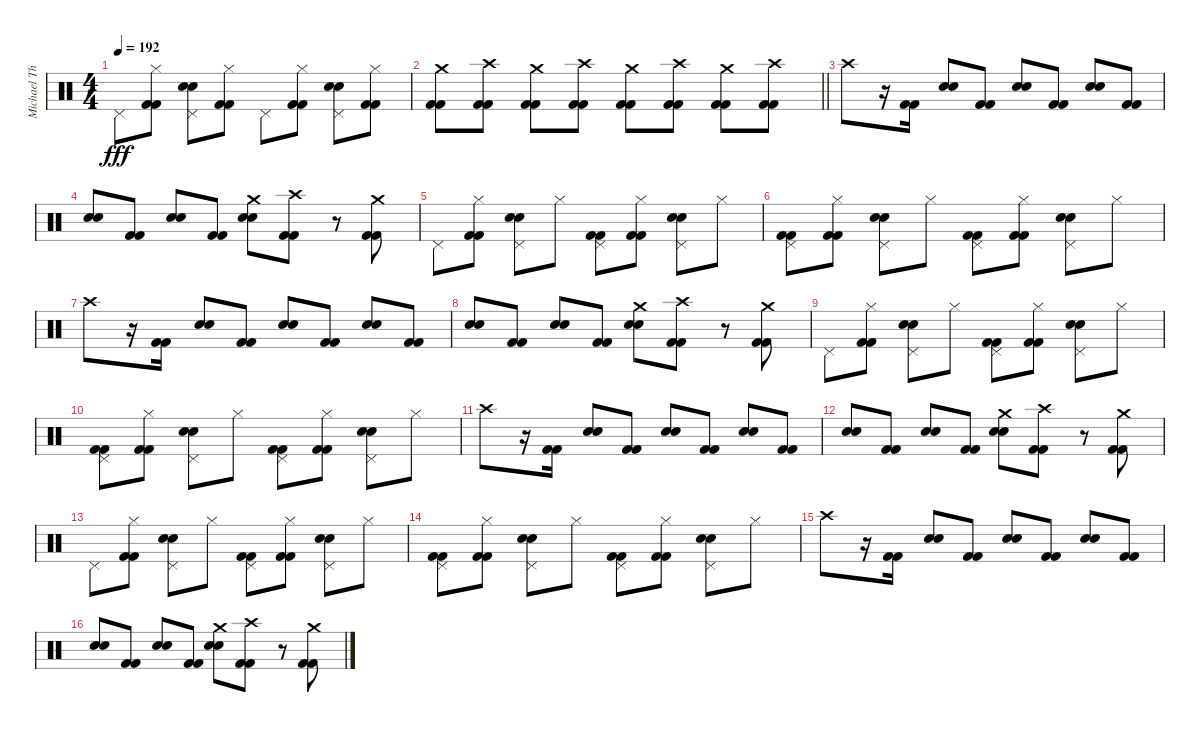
\track ("Michael Thomas" "Michael Th") {instrument percussion}
\staff {score}
\articulation defaults
\ts (4 4)
\tempo 192
\clef neutral
\ks c "Pedal Hi-Hat (hit)".8{dy fff}
("Hi-Hat (closed)" "Kick (hit) 2" "Kick (hit) 2").8 ("Pedal Hi-Hat (hit)" "Snare (hit) 2" "Electric Snare (hit)").8 ("Hi-Hat (closed)" "Kick (hit) 2" "Kick (hit) 2").8 "Pedal Hi-Hat (hit)".8 ("Hi-Hat (closed)" "Kick (hit) 2" "Kick (hit) 2").8 ("Pedal Hi-Hat (hit)" "Snare (hit) 2" "Electric Snare (hit)").8 ("Hi-Hat (closed)" "Kick (hit) 2" "Kick (hit) 2").8 |
\barLineRight lightlight
("Crash medium (hit)" "Kick (hit) 2" "Kick (hit) 2").8 ("Crash high (hit)" "Kick (hit) 2" "Kick (hit) 2").8 ("Crash medium (hit)" "Kick (hit) 2" "Kick (hit) 2").8 ("Crash high (hit)" "Kick (hit) 2" "Kick (hit) 2").8 ("Crash medium (hit)" "Kick (hit) 2" "Kick (hit) 2").8 ("Crash high (hit)" "Kick (hit) 2" "Kick (hit) 2").8 ("Crash medium (hit)" "Kick (hit) 2" "Kick (hit) 2").8 ("Crash high (hit)" "Kick (hit) 2" "Kick (hit) 2").8 |
"Crash high (hit)".8 r.16 ("Kick (hit) 2" "Kick (hit) 2").16 ("Snare (hit) 2" "Electric Snare (hit)").8 ("Kick (hit) 2" "Kick (hit) 2").8 ("Snare (hit) 2" "Electric Snare (hit)").8 ("Kick (hit) 2" "Kick (hit) 2").8 ("Snare (hit) 2" "Electric Snare (hit)").8 ("Kick (hit) 2" "Kick (hit) 2").8 |
("Snare (hit) 2" "Electric Snare (hit)").8 ("Kick (hit) 2" "Kick (hit) 2").8 ("Snare (hit) 2" "Electric Snare (hit)").8 ("Kick (hit) 2" "Kick (hit) 2").8 ("Crash medium (hit)" "Snare (hit) 2" "Electric Snare (hit)").8 ("Crash high (hit)" "Kick (hit) 2" "Kick (hit) 2").8 r.8 ("Crash medium (hit)" "Kick (hit) 2" "Kick (hit) 2").8 |
"Pedal Hi-Hat (hit)".8 ("Hi-Hat (closed)" "Kick (hit) 2" "Kick (hit) 2").8 ("Pedal Hi-Hat (hit)" "Snare (hit) 2" "Electric Snare (hit)").8 "Hi-Hat (closed)".8 ("Pedal Hi-Hat (hit)" "Kick (hit) 2" "Kick (hit) 2").8 ("Hi-Hat (closed)" "Kick (hit) 2" "Kick (hit) 2").8 ("Pedal Hi-Hat (hit)" "Snare (hit) 2" "Electric Snare (hit)").8 "Hi-Hat (closed)".8 |
("Pedal Hi-Hat (hit)" "Kick (hit) 2" "Kick (hit) 2").8 ("Hi-Hat (closed)" "Kick (hit) 2" "Kick (hit) 2").8 ("Pedal Hi-Hat (hit)" "Snare (hit) 2" "Electric Snare (hit)").8 "Hi-Hat (closed)".8 ("Pedal Hi-Hat (hit)" "Kick (hit) 2" "Kick (hit) 2").8 ("Hi-Hat (closed)" "Kick (hit) 2" "Kick (hit) 2").8 ("Pedal Hi-Hat (hit)" "Snare (hit) 2" "Electric Snare (hit)").8 "Hi-Hat (closed)".8 |
"Crash high (hit)".8 r.16 ("Kick (hit) 2" "Kick (hit) 2").16 ("Snare (hit) 2" "Electric Snare (hit)").8 ("Kick (hit) 2" "Kick (hit) 2").8 ("Snare (hit) 2" "Electric Snare (hit)").8 ("Kick (hit) 2" "Kick (hit) 2").8 ("Snare (hit) 2" "Electric Snare (hit)").8 ("Kick (hit) 2" "Kick (hit) 2").8 |
("Snare (hit) 2" "Electric Snare (hit)").8 ("Kick (hit) 2" "Kick (hit) 2").8 ("Snare (hit) 2" "Electric Snare (hit)").8 ("Kick (hit) 2" "Kick (hit) 2").8 ("Crash medium (hit)" "Snare (hit) 2" "Electric Snare (hit)").8 ("Crash high (hit)" "Kick (hit) 2" "Kick (hit) 2").8 r.8 ("Crash medium (hit)" "Kick (hit) 2" "Kick (hit) 2").8 |
"Pedal Hi-Hat (hit)".8 ("Hi-Hat (closed)" "Kick (hit) 2" "Kick (hit) 2").8 ("Pedal Hi-Hat (hit)" "Snare (hit) 2" "Electric Snare (hit)").8 "Hi-Hat (closed)".8 ("Pedal Hi-Hat (hit)" "Kick (hit) 2" "Kick (hit) 2").8 ("Hi-Hat (closed)" "Kick (hit) 2" "Kick (hit) 2").8 ("Pedal Hi-Hat (hit)" "Snare (hit) 2" "Electric Snare (hit)").8 "Hi-Hat (closed)".8 |
("Pedal Hi-Hat (hit)" "Kick (hit) 2" "Kick (hit) 2").8 ("Hi-Hat (closed)" "Kick (hit) 2" "Kick (hit) 2").8 ("Pedal Hi-Hat (hit)" "Snare (hit) 2" "Electric Snare (hit)").8 "Hi-Hat (closed)".8 ("Pedal Hi-Hat (hit)" "Kick (hit) 2" "Kick (hit) 2").8 ("Hi-Hat (closed)" "Kick (hit) 2" "Kick (hit) 2").8 ("Pedal Hi-Hat (hit)" "Snare (hit) 2" "Electric Snare (hit)").8 "Hi-Hat (closed)".8 |
"Crash high (hit)".8 r.16 ("Kick (hit) 2" "Kick (hit) 2").16 ("Snare (hit) 2" "Electric Snare (hit)").8 ("Kick (hit) 2" "Kick (hit) 2").8 ("Snare (hit) 2" "Electric Snare (hit)").8 ("Kick (hit) 2" "Kick (hit) 2").8 ("Snare (hit) 2" "Electric Snare (hit)").8 ("Kick (hit) 2" "Kick (hit) 2").8 |
("Snare (hit) 2" "Electric Snare (hit)").8 ("Kick (hit) 2" "Kick (hit) 2").8 ("Snare (hit) 2" "Electric Snare (hit)").8 ("Kick (hit) 2" "Kick (hit) 2").8 ("Crash medium (hit)" "Snare (hit) 2" "Electric Snare (hit)").8 ("Crash high (hit)" "Kick (hit) 2" "Kick (hit) 2").8 r.8 ("Crash medium (hit)" "Kick (hit) 2" "Kick (hit) 2").8 |
"Pedal Hi-Hat (hit)".8 ("Hi-Hat (closed)" "Kick (hit) 2" "Kick (hit) 2").8 ("Pedal Hi-Hat (hit)" "Snare (hit) 2" "Electric Snare (hit)").8 "Hi-Hat (closed)".8 ("Pedal Hi-Hat (hit)" "Kick (hit) 2" "Kick (hit) 2").8 ("Hi-Hat (closed)" "Kick (hit) 2" "Kick (hit) 2").8 ("Pedal Hi-Hat (hit)" "Snare (hit) 2" "Electric Snare (hit)").8 "Hi-Hat (closed)".8 |
("Pedal Hi-Hat (hit)" "Kick (hit) 2" "Kick (hit) 2").8 ("Hi-Hat (closed)" "Kick (hit) 2" "Kick (hit) 2").8 ("Pedal Hi-Hat (hit)" "Snare (hit) 2" "Electric Snare (hit)").8 "Hi-Hat (closed)".8 ("Pedal Hi-Hat (hit)" "Kick (hit) 2" "Kick (hit) 2").8 ("Hi-Hat (closed)" "Kick (hit) 2" "Kick (hit) 2").8 ("Pedal Hi-Hat (hit)" "Snare (hit) 2" "Electric Snare (hit)").8 "Hi-Hat (closed)".8 |
"Crash high (hit)".8 r.16 ("Kick (hit) 2" "Kick (hit) 2").16 ("Snare (hit) 2" "Electric Snare (hit)").8 ("Kick (hit) 2" "Kick (hit) 2").8 ("Snare (hit) 2" "Electric Snare (hit)").8 ("Kick (hit) 2" "Kick (hit) 2").8 ("Snare (hit) 2" "Electric Snare (hit)").8 ("Kick (hit) 2" "Kick (hit) 2").8 |
("Snare (hit) 2" "Electric Snare (hit)").8 ("Kick (hit) 2" "Kick (hit) 2").8 ("Snare (hit) 2" "Electric Snare (hit)").8 ("Kick (hit) 2" "Kick (hit) 2").8 ("Crash medium (hit)" "Snare (hit) 2" "Electric Snare (hit)").8 ("Crash high (hit)" "Kick (hit) 2" "Kick (hit) 2").8 r.8 ("Crash medium (hit)" "Kick (hit) 2" "Kick (hit) 2").8
